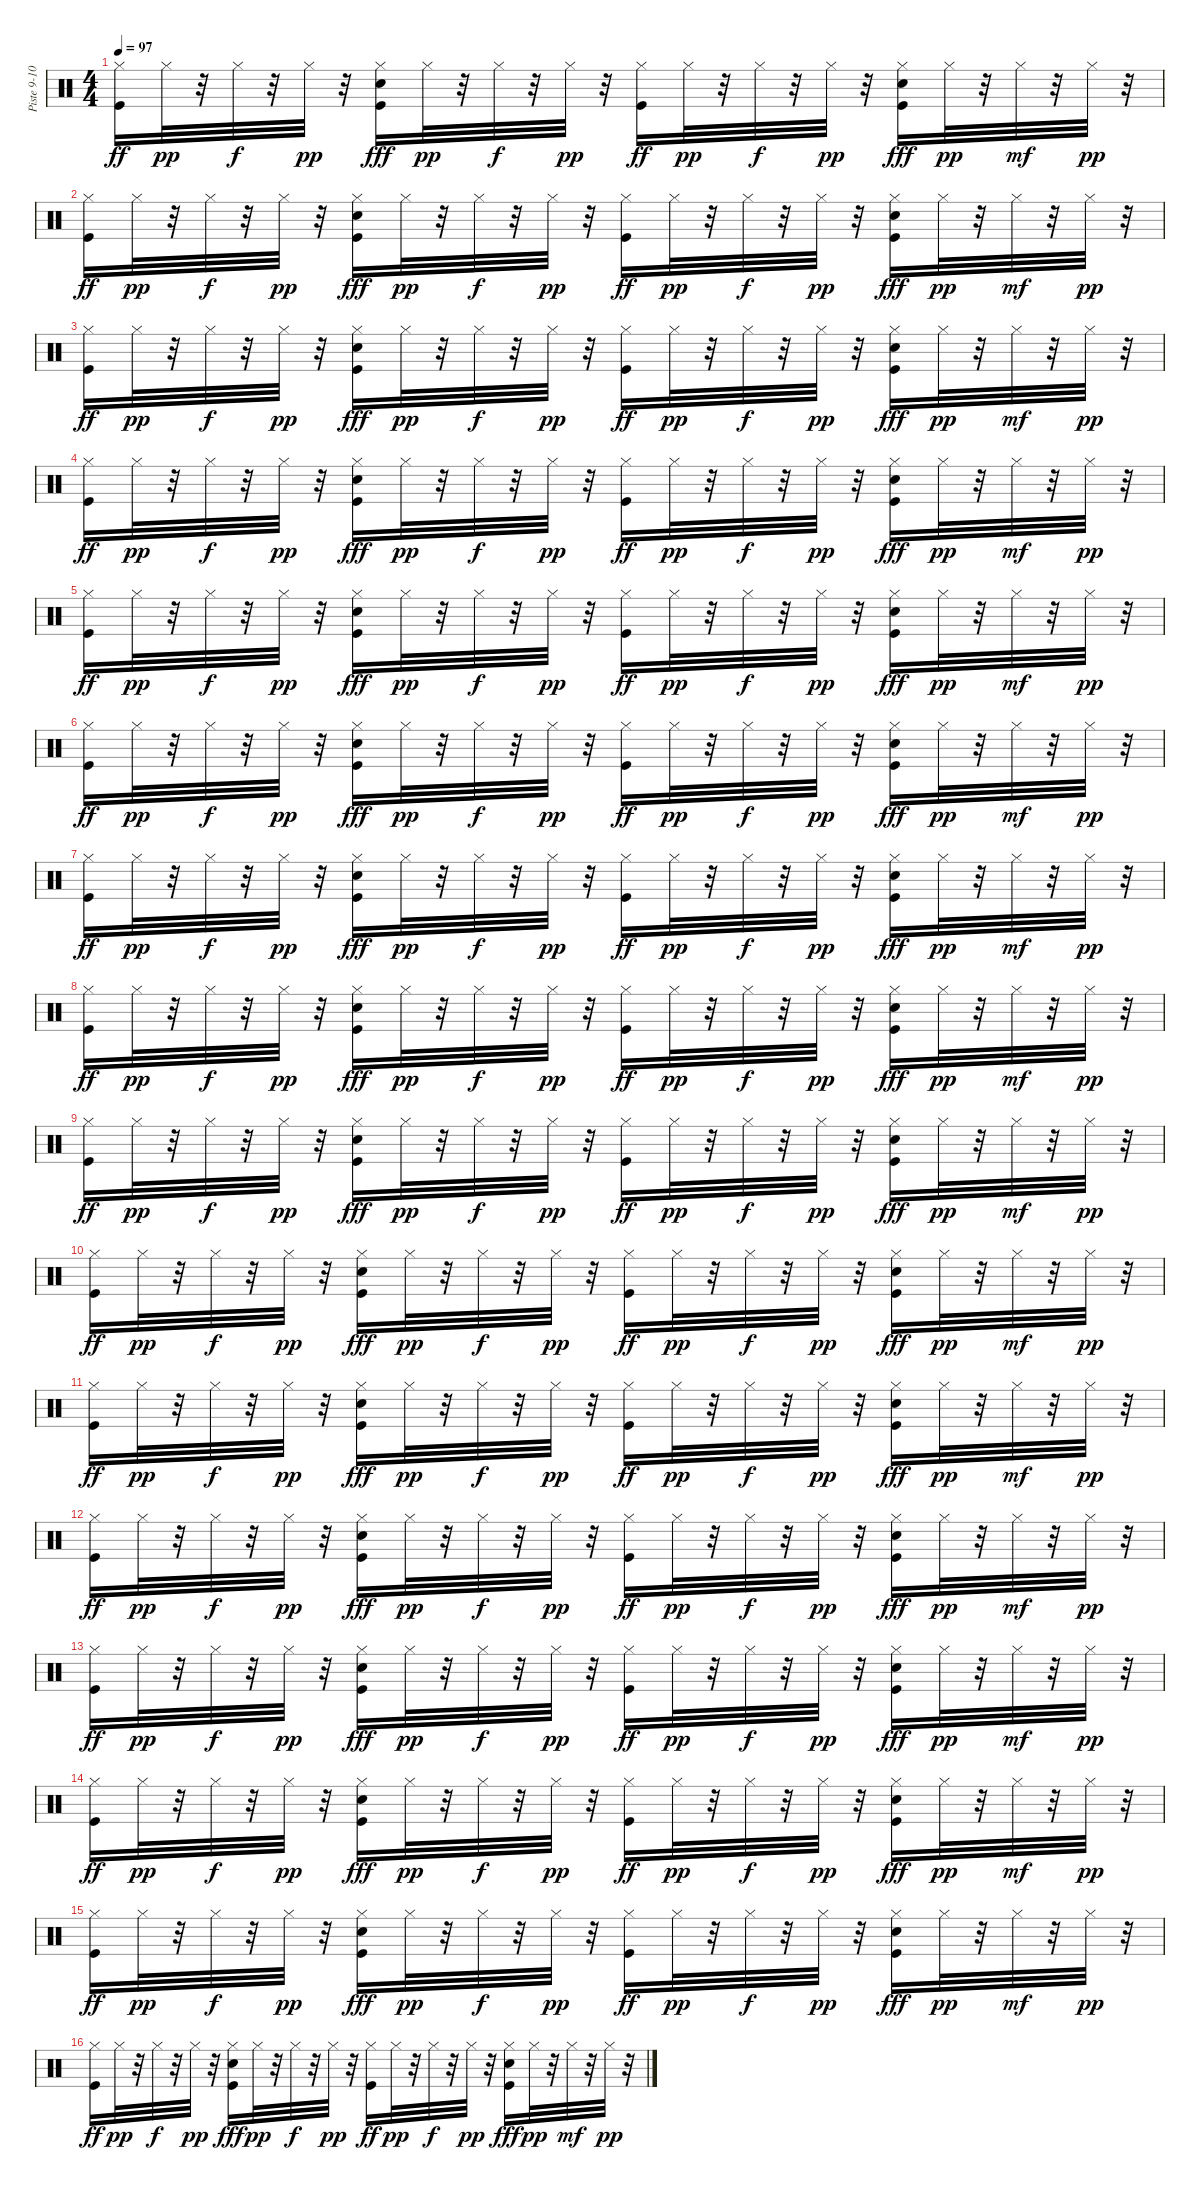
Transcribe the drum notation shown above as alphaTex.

\track ("Piste 9-10-11-12-13-14" "Piste 9-10") {instrument percussion}
\staff {score}
\articulation defaults
\ts (4 4)
\tempo 97
\clef neutral
\ks c
("Hi-Hat (closed)" "Kick (hit)").16{dy ff} "Hi-Hat (closed)".32{dy pp} r.32 "Hi-Hat (closed)".32{dy f} r.32 "Hi-Hat (closed)".32{dy pp} r.32 ("Hi-Hat (closed)" "Snare (hit) 2" "Kick (hit)").16{dy fff} "Hi-Hat (closed)".32{dy pp} r.32 "Hi-Hat (closed)".32{dy f} r.32 "Hi-Hat (closed)".32{dy pp} r.32 ("Hi-Hat (closed)" "Kick (hit)").16{dy ff} "Hi-Hat (closed)".32{dy pp} r.32 "Hi-Hat (closed)".32{dy f} r.32 "Hi-Hat (closed)".32{dy pp} r.32 ("Hi-Hat (closed)" "Snare (hit) 2" "Kick (hit)").16{dy fff} "Hi-Hat (closed)".32{dy pp} r.32 "Hi-Hat (closed)".32{dy mf} r.32 "Hi-Hat (closed)".32{dy pp} r.32 |
("Hi-Hat (closed)" "Kick (hit)").16{dy ff} "Hi-Hat (closed)".32{dy pp} r.32 "Hi-Hat (closed)".32{dy f} r.32 "Hi-Hat (closed)".32{dy pp} r.32 ("Hi-Hat (closed)" "Snare (hit) 2" "Kick (hit)").16{dy fff} "Hi-Hat (closed)".32{dy pp} r.32 "Hi-Hat (closed)".32{dy f} r.32 "Hi-Hat (closed)".32{dy pp} r.32 ("Hi-Hat (closed)" "Kick (hit)").16{dy ff} "Hi-Hat (closed)".32{dy pp} r.32 "Hi-Hat (closed)".32{dy f} r.32 "Hi-Hat (closed)".32{dy pp} r.32 ("Hi-Hat (closed)" "Snare (hit) 2" "Kick (hit)").16{dy fff} "Hi-Hat (closed)".32{dy pp} r.32 "Hi-Hat (closed)".32{dy mf} r.32 "Hi-Hat (closed)".32{dy pp} r.32 |
("Hi-Hat (closed)" "Kick (hit)").16{dy ff} "Hi-Hat (closed)".32{dy pp} r.32 "Hi-Hat (closed)".32{dy f} r.32 "Hi-Hat (closed)".32{dy pp} r.32 ("Hi-Hat (closed)" "Snare (hit) 2" "Kick (hit)").16{dy fff} "Hi-Hat (closed)".32{dy pp} r.32 "Hi-Hat (closed)".32{dy f} r.32 "Hi-Hat (closed)".32{dy pp} r.32 ("Hi-Hat (closed)" "Kick (hit)").16{dy ff} "Hi-Hat (closed)".32{dy pp} r.32 "Hi-Hat (closed)".32{dy f} r.32 "Hi-Hat (closed)".32{dy pp} r.32 ("Hi-Hat (closed)" "Snare (hit) 2" "Kick (hit)").16{dy fff} "Hi-Hat (closed)".32{dy pp} r.32 "Hi-Hat (closed)".32{dy mf} r.32 "Hi-Hat (closed)".32{dy pp} r.32 |
("Hi-Hat (closed)" "Kick (hit)").16{dy ff} "Hi-Hat (closed)".32{dy pp} r.32 "Hi-Hat (closed)".32{dy f} r.32 "Hi-Hat (closed)".32{dy pp} r.32 ("Hi-Hat (closed)" "Snare (hit) 2" "Kick (hit)").16{dy fff} "Hi-Hat (closed)".32{dy pp} r.32 "Hi-Hat (closed)".32{dy f} r.32 "Hi-Hat (closed)".32{dy pp} r.32 ("Hi-Hat (closed)" "Kick (hit)").16{dy ff} "Hi-Hat (closed)".32{dy pp} r.32 "Hi-Hat (closed)".32{dy f} r.32 "Hi-Hat (closed)".32{dy pp} r.32 ("Hi-Hat (closed)" "Snare (hit) 2" "Kick (hit)").16{dy fff} "Hi-Hat (closed)".32{dy pp} r.32 "Hi-Hat (closed)".32{dy mf} r.32 "Hi-Hat (closed)".32{dy pp} r.32 |
("Hi-Hat (closed)" "Kick (hit)").16{dy ff} "Hi-Hat (closed)".32{dy pp} r.32 "Hi-Hat (closed)".32{dy f} r.32 "Hi-Hat (closed)".32{dy pp} r.32 ("Hi-Hat (closed)" "Snare (hit) 2" "Kick (hit)").16{dy fff} "Hi-Hat (closed)".32{dy pp} r.32 "Hi-Hat (closed)".32{dy f} r.32 "Hi-Hat (closed)".32{dy pp} r.32 ("Hi-Hat (closed)" "Kick (hit)").16{dy ff} "Hi-Hat (closed)".32{dy pp} r.32 "Hi-Hat (closed)".32{dy f} r.32 "Hi-Hat (closed)".32{dy pp} r.32 ("Hi-Hat (closed)" "Snare (hit) 2" "Kick (hit)").16{dy fff} "Hi-Hat (closed)".32{dy pp} r.32 "Hi-Hat (closed)".32{dy mf} r.32 "Hi-Hat (closed)".32{dy pp} r.32 |
("Hi-Hat (closed)" "Kick (hit)").16{dy ff} "Hi-Hat (closed)".32{dy pp} r.32 "Hi-Hat (closed)".32{dy f} r.32 "Hi-Hat (closed)".32{dy pp} r.32 ("Hi-Hat (closed)" "Snare (hit) 2" "Kick (hit)").16{dy fff} "Hi-Hat (closed)".32{dy pp} r.32 "Hi-Hat (closed)".32{dy f} r.32 "Hi-Hat (closed)".32{dy pp} r.32 ("Hi-Hat (closed)" "Kick (hit)").16{dy ff} "Hi-Hat (closed)".32{dy pp} r.32 "Hi-Hat (closed)".32{dy f} r.32 "Hi-Hat (closed)".32{dy pp} r.32 ("Hi-Hat (closed)" "Snare (hit) 2" "Kick (hit)").16{dy fff} "Hi-Hat (closed)".32{dy pp} r.32 "Hi-Hat (closed)".32{dy mf} r.32 "Hi-Hat (closed)".32{dy pp} r.32 |
("Hi-Hat (closed)" "Kick (hit)").16{dy ff} "Hi-Hat (closed)".32{dy pp} r.32 "Hi-Hat (closed)".32{dy f} r.32 "Hi-Hat (closed)".32{dy pp} r.32 ("Hi-Hat (closed)" "Snare (hit) 2" "Kick (hit)").16{dy fff} "Hi-Hat (closed)".32{dy pp} r.32 "Hi-Hat (closed)".32{dy f} r.32 "Hi-Hat (closed)".32{dy pp} r.32 ("Hi-Hat (closed)" "Kick (hit)").16{dy ff} "Hi-Hat (closed)".32{dy pp} r.32 "Hi-Hat (closed)".32{dy f} r.32 "Hi-Hat (closed)".32{dy pp} r.32 ("Hi-Hat (closed)" "Snare (hit) 2" "Kick (hit)").16{dy fff} "Hi-Hat (closed)".32{dy pp} r.32 "Hi-Hat (closed)".32{dy mf} r.32 "Hi-Hat (closed)".32{dy pp} r.32 |
("Hi-Hat (closed)" "Kick (hit)").16{dy ff} "Hi-Hat (closed)".32{dy pp} r.32 "Hi-Hat (closed)".32{dy f} r.32 "Hi-Hat (closed)".32{dy pp} r.32 ("Hi-Hat (closed)" "Snare (hit) 2" "Kick (hit)").16{dy fff} "Hi-Hat (closed)".32{dy pp} r.32 "Hi-Hat (closed)".32{dy f} r.32 "Hi-Hat (closed)".32{dy pp} r.32 ("Hi-Hat (closed)" "Kick (hit)").16{dy ff} "Hi-Hat (closed)".32{dy pp} r.32 "Hi-Hat (closed)".32{dy f} r.32 "Hi-Hat (closed)".32{dy pp} r.32 ("Hi-Hat (closed)" "Snare (hit) 2" "Kick (hit)").16{dy fff} "Hi-Hat (closed)".32{dy pp} r.32 "Hi-Hat (closed)".32{dy mf} r.32 "Hi-Hat (closed)".32{dy pp} r.32 |
("Hi-Hat (closed)" "Kick (hit)").16{dy ff} "Hi-Hat (closed)".32{dy pp} r.32 "Hi-Hat (closed)".32{dy f} r.32 "Hi-Hat (closed)".32{dy pp} r.32 ("Hi-Hat (closed)" "Snare (hit) 2" "Kick (hit)").16{dy fff} "Hi-Hat (closed)".32{dy pp} r.32 "Hi-Hat (closed)".32{dy f} r.32 "Hi-Hat (closed)".32{dy pp} r.32 ("Hi-Hat (closed)" "Kick (hit)").16{dy ff} "Hi-Hat (closed)".32{dy pp} r.32 "Hi-Hat (closed)".32{dy f} r.32 "Hi-Hat (closed)".32{dy pp} r.32 ("Hi-Hat (closed)" "Snare (hit) 2" "Kick (hit)").16{dy fff} "Hi-Hat (closed)".32{dy pp} r.32 "Hi-Hat (closed)".32{dy mf} r.32 "Hi-Hat (closed)".32{dy pp} r.32 |
("Hi-Hat (closed)" "Kick (hit)").16{dy ff} "Hi-Hat (closed)".32{dy pp} r.32 "Hi-Hat (closed)".32{dy f} r.32 "Hi-Hat (closed)".32{dy pp} r.32 ("Hi-Hat (closed)" "Snare (hit) 2" "Kick (hit)").16{dy fff} "Hi-Hat (closed)".32{dy pp} r.32 "Hi-Hat (closed)".32{dy f} r.32 "Hi-Hat (closed)".32{dy pp} r.32 ("Hi-Hat (closed)" "Kick (hit)").16{dy ff} "Hi-Hat (closed)".32{dy pp} r.32 "Hi-Hat (closed)".32{dy f} r.32 "Hi-Hat (closed)".32{dy pp} r.32 ("Hi-Hat (closed)" "Snare (hit) 2" "Kick (hit)").16{dy fff} "Hi-Hat (closed)".32{dy pp} r.32 "Hi-Hat (closed)".32{dy mf} r.32 "Hi-Hat (closed)".32{dy pp} r.32 |
("Hi-Hat (closed)" "Kick (hit)").16{dy ff} "Hi-Hat (closed)".32{dy pp} r.32 "Hi-Hat (closed)".32{dy f} r.32 "Hi-Hat (closed)".32{dy pp} r.32 ("Hi-Hat (closed)" "Snare (hit) 2" "Kick (hit)").16{dy fff} "Hi-Hat (closed)".32{dy pp} r.32 "Hi-Hat (closed)".32{dy f} r.32 "Hi-Hat (closed)".32{dy pp} r.32 ("Hi-Hat (closed)" "Kick (hit)").16{dy ff} "Hi-Hat (closed)".32{dy pp} r.32 "Hi-Hat (closed)".32{dy f} r.32 "Hi-Hat (closed)".32{dy pp} r.32 ("Hi-Hat (closed)" "Snare (hit) 2" "Kick (hit)").16{dy fff} "Hi-Hat (closed)".32{dy pp} r.32 "Hi-Hat (closed)".32{dy mf} r.32 "Hi-Hat (closed)".32{dy pp} r.32 |
("Hi-Hat (closed)" "Kick (hit)").16{dy ff} "Hi-Hat (closed)".32{dy pp} r.32 "Hi-Hat (closed)".32{dy f} r.32 "Hi-Hat (closed)".32{dy pp} r.32 ("Hi-Hat (closed)" "Snare (hit) 2" "Kick (hit)").16{dy fff} "Hi-Hat (closed)".32{dy pp} r.32 "Hi-Hat (closed)".32{dy f} r.32 "Hi-Hat (closed)".32{dy pp} r.32 ("Hi-Hat (closed)" "Kick (hit)").16{dy ff} "Hi-Hat (closed)".32{dy pp} r.32 "Hi-Hat (closed)".32{dy f} r.32 "Hi-Hat (closed)".32{dy pp} r.32 ("Hi-Hat (closed)" "Snare (hit) 2" "Kick (hit)").16{dy fff} "Hi-Hat (closed)".32{dy pp} r.32 "Hi-Hat (closed)".32{dy mf} r.32 "Hi-Hat (closed)".32{dy pp} r.32 |
("Hi-Hat (closed)" "Kick (hit)").16{dy ff} "Hi-Hat (closed)".32{dy pp} r.32 "Hi-Hat (closed)".32{dy f} r.32 "Hi-Hat (closed)".32{dy pp} r.32 ("Hi-Hat (closed)" "Snare (hit) 2" "Kick (hit)").16{dy fff} "Hi-Hat (closed)".32{dy pp} r.32 "Hi-Hat (closed)".32{dy f} r.32 "Hi-Hat (closed)".32{dy pp} r.32 ("Hi-Hat (closed)" "Kick (hit)").16{dy ff} "Hi-Hat (closed)".32{dy pp} r.32 "Hi-Hat (closed)".32{dy f} r.32 "Hi-Hat (closed)".32{dy pp} r.32 ("Hi-Hat (closed)" "Snare (hit) 2" "Kick (hit)").16{dy fff} "Hi-Hat (closed)".32{dy pp} r.32 "Hi-Hat (closed)".32{dy mf} r.32 "Hi-Hat (closed)".32{dy pp} r.32 |
("Hi-Hat (closed)" "Kick (hit)").16{dy ff} "Hi-Hat (closed)".32{dy pp} r.32 "Hi-Hat (closed)".32{dy f} r.32 "Hi-Hat (closed)".32{dy pp} r.32 ("Hi-Hat (closed)" "Snare (hit) 2" "Kick (hit)").16{dy fff} "Hi-Hat (closed)".32{dy pp} r.32 "Hi-Hat (closed)".32{dy f} r.32 "Hi-Hat (closed)".32{dy pp} r.32 ("Hi-Hat (closed)" "Kick (hit)").16{dy ff} "Hi-Hat (closed)".32{dy pp} r.32 "Hi-Hat (closed)".32{dy f} r.32 "Hi-Hat (closed)".32{dy pp} r.32 ("Hi-Hat (closed)" "Snare (hit) 2" "Kick (hit)").16{dy fff} "Hi-Hat (closed)".32{dy pp} r.32 "Hi-Hat (closed)".32{dy mf} r.32 "Hi-Hat (closed)".32{dy pp} r.32 |
("Hi-Hat (closed)" "Kick (hit)").16{dy ff} "Hi-Hat (closed)".32{dy pp} r.32 "Hi-Hat (closed)".32{dy f} r.32 "Hi-Hat (closed)".32{dy pp} r.32 ("Hi-Hat (closed)" "Snare (hit) 2" "Kick (hit)").16{dy fff} "Hi-Hat (closed)".32{dy pp} r.32 "Hi-Hat (closed)".32{dy f} r.32 "Hi-Hat (closed)".32{dy pp} r.32 ("Hi-Hat (closed)" "Kick (hit)").16{dy ff} "Hi-Hat (closed)".32{dy pp} r.32 "Hi-Hat (closed)".32{dy f} r.32 "Hi-Hat (closed)".32{dy pp} r.32 ("Hi-Hat (closed)" "Snare (hit) 2" "Kick (hit)").16{dy fff} "Hi-Hat (closed)".32{dy pp} r.32 "Hi-Hat (closed)".32{dy mf} r.32 "Hi-Hat (closed)".32{dy pp} r.32 |
("Hi-Hat (closed)" "Kick (hit)").16{dy ff} "Hi-Hat (closed)".32{dy pp} r.32 "Hi-Hat (closed)".32{dy f} r.32 "Hi-Hat (closed)".32{dy pp} r.32 ("Hi-Hat (closed)" "Snare (hit) 2" "Kick (hit)").16{dy fff} "Hi-Hat (closed)".32{dy pp} r.32 "Hi-Hat (closed)".32{dy f} r.32 "Hi-Hat (closed)".32{dy pp} r.32 ("Hi-Hat (closed)" "Kick (hit)").16{dy ff} "Hi-Hat (closed)".32{dy pp} r.32 "Hi-Hat (closed)".32{dy f} r.32 "Hi-Hat (closed)".32{dy pp} r.32 ("Hi-Hat (closed)" "Snare (hit) 2" "Kick (hit)").16{dy fff} "Hi-Hat (closed)".32{dy pp} r.32 "Hi-Hat (closed)".32{dy mf} r.32 "Hi-Hat (closed)".32{dy pp} r.32
